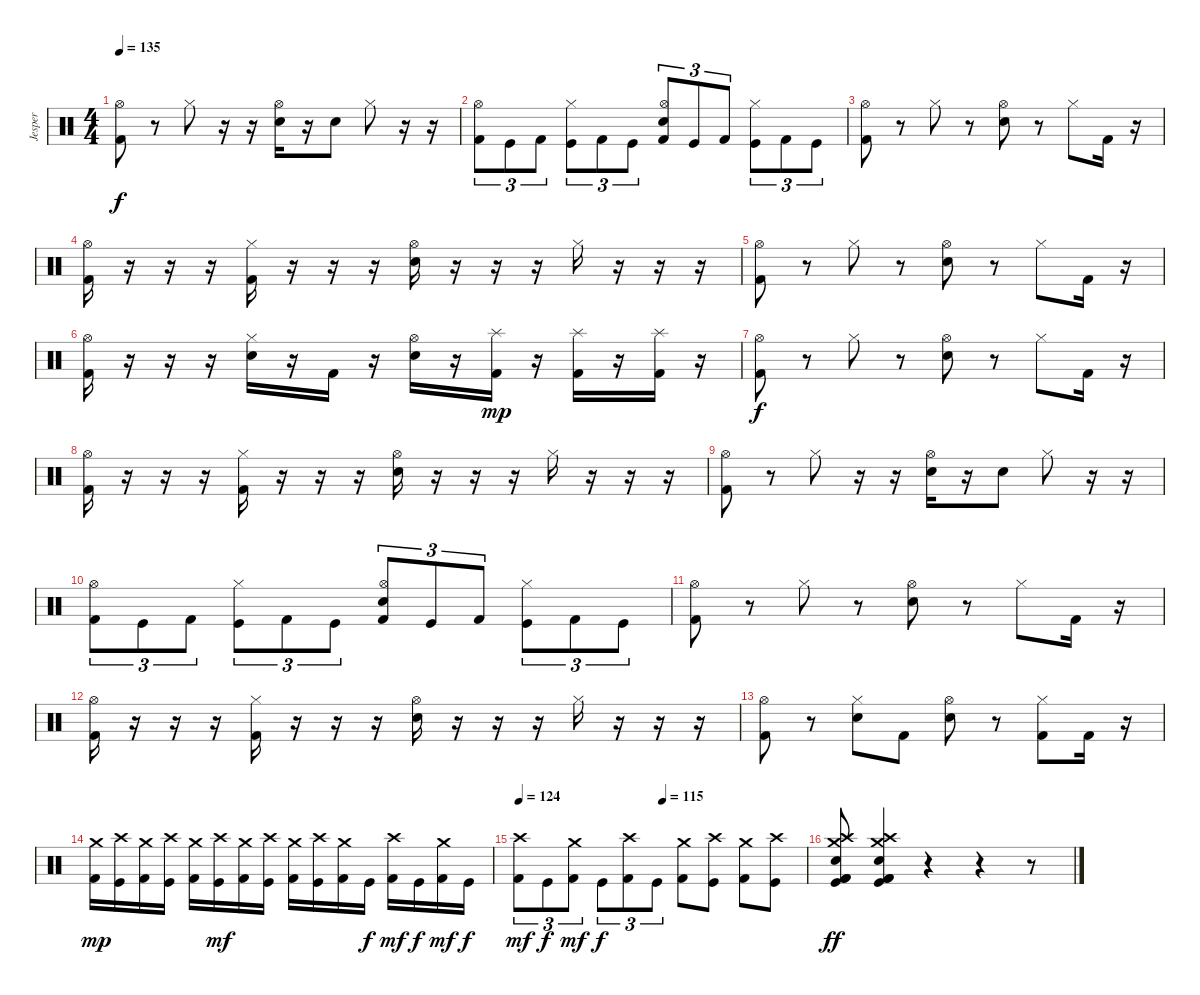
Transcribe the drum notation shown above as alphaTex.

\track ("Jesper" "Jesper") {instrument percussion}
\staff {score}
\articulation defaults
\ts (4 4)
\tempo 135
\clef neutral
\ks c
("Kick (hit) 2" "Hi-Hat (open)").8{dy f} r.8 "Hi-Hat (closed)".8 r.16 r.16 ("Snare (hit) 2" "Hi-Hat (open)").16 r.16 "Snare (hit) 2".8 "Hi-Hat (closed)".8 r.16 r.16 |
("Kick (hit) 2" "Hi-Hat (open)").8{tu (3 2)} "Kick (hit)".8{tu (3 2)} "Kick (hit) 2".8{tu (3 2)} ("Kick (hit)" "Hi-Hat (closed)").8{tu (3 2)} "Kick (hit) 2".8{tu (3 2)} "Kick (hit)".8{tu (3 2)} ("Kick (hit) 2" "Snare (hit) 2" "Hi-Hat (open)").8{tu (3 2)} "Kick (hit)".8{tu (3 2)} "Kick (hit) 2".8{tu (3 2)} ("Kick (hit)" "Hi-Hat (closed)").8{tu (3 2)} "Kick (hit) 2".8{tu (3 2)} "Kick (hit)".8{tu (3 2)} |
("Kick (hit) 2" "Hi-Hat (open)").8 r.8 "Hi-Hat (closed)".8 r.8 ("Snare (hit) 2" "Hi-Hat (open)").8 r.8 "Hi-Hat (closed)".8 "Kick (hit) 2".16 r.16 |
("Kick (hit) 2" "Hi-Hat (open)").16 r.16 r.16 r.16 ("Kick (hit) 2" "Hi-Hat (closed)").16 r.16 r.16 r.16 ("Snare (hit) 2" "Hi-Hat (open)").16 r.16 r.16 r.16 "Hi-Hat (closed)".16 r.16 r.16 r.16 |
("Kick (hit) 2" "Hi-Hat (open)").8 r.8 "Hi-Hat (closed)".8 r.8 ("Snare (hit) 2" "Hi-Hat (open)").8 r.8 "Hi-Hat (closed)".8 "Kick (hit) 2".16 r.16 |
("Kick (hit) 2" "Hi-Hat (open)").16 r.16 r.16 r.16 ("Snare (hit) 2" "Hi-Hat (closed)").16 r.16 "Kick (hit) 2".16 r.16 ("Snare (hit) 2" "Hi-Hat (open)").16 r.16 ("Kick (hit) 2" "Splash (hit)").16{dy mp} r.16 ("Kick (hit) 2" "Splash (hit)").16 r.16 ("Kick (hit) 2" "Splash (hit)").16 r.16 |
("Kick (hit) 2" "Hi-Hat (open)").8{dy f} r.8 "Hi-Hat (closed)".8 r.8 ("Snare (hit) 2" "Hi-Hat (open)").8 r.8 "Hi-Hat (closed)".8 "Kick (hit) 2".16 r.16 |
("Kick (hit) 2" "Hi-Hat (open)").16 r.16 r.16 r.16 ("Kick (hit) 2" "Hi-Hat (closed)").16 r.16 r.16 r.16 ("Snare (hit) 2" "Hi-Hat (open)").16 r.16 r.16 r.16 "Hi-Hat (closed)".16 r.16 r.16 r.16 |
("Kick (hit) 2" "Hi-Hat (open)").8 r.8 "Hi-Hat (closed)".8 r.16 r.16 ("Snare (hit) 2" "Hi-Hat (open)").16 r.16 "Snare (hit) 2".8 "Hi-Hat (closed)".8 r.16 r.16 |
("Kick (hit) 2" "Hi-Hat (open)").8{tu (3 2)} "Kick (hit)".8{tu (3 2)} "Kick (hit) 2".8{tu (3 2)} ("Kick (hit)" "Hi-Hat (closed)").8{tu (3 2)} "Kick (hit) 2".8{tu (3 2)} "Kick (hit)".8{tu (3 2)} ("Kick (hit) 2" "Snare (hit) 2" "Hi-Hat (open)").8{tu (3 2)} "Kick (hit)".8{tu (3 2)} "Kick (hit) 2".8{tu (3 2)} ("Kick (hit)" "Hi-Hat (closed)").8{tu (3 2)} "Kick (hit) 2".8{tu (3 2)} "Kick (hit)".8{tu (3 2)} |
("Kick (hit) 2" "Hi-Hat (open)").8 r.8 "Hi-Hat (closed)".8 r.8 ("Snare (hit) 2" "Hi-Hat (open)").8 r.8 "Hi-Hat (closed)".8 "Kick (hit) 2".16 r.16 |
("Kick (hit) 2" "Hi-Hat (open)").16 r.16 r.16 r.16 ("Kick (hit) 2" "Hi-Hat (closed)").16 r.16 r.16 r.16 ("Snare (hit) 2" "Hi-Hat (open)").16 r.16 r.16 r.16 "Hi-Hat (closed)".16 r.16 r.16 r.16 |
("Kick (hit) 2" "Hi-Hat (open)").8 r.8 ("Snare (hit) 2" "Hi-Hat (closed)").8 "Kick (hit) 2".8 ("Snare (hit) 2" "Hi-Hat (open)").8 r.8 ("Kick (hit) 2" "Hi-Hat (closed)").8 "Kick (hit) 2".16 r.16 |
("Kick (hit) 2" "Crash medium (hit)").16{dy mp} ("Kick (hit)" "Crash high (hit)").16 ("Kick (hit) 2" "Crash medium (hit)").16 ("Kick (hit)" "Crash high (hit)").16 ("Kick (hit) 2" "Crash medium (hit)").16 ("Kick (hit)" "Crash high (hit)").16{dy mf} ("Kick (hit) 2" "Crash medium (hit)").16 ("Kick (hit)" "Crash high (hit)").16 ("Kick (hit) 2" "Crash medium (hit)").16 ("Kick (hit)" "Crash high (hit)").16 ("Kick (hit) 2" "Crash medium (hit)").16 "Kick (hit)".16{dy f} ("Kick (hit) 2" "Crash high (hit)").16{dy mf} "Kick (hit)".16{dy f} ("Kick (hit) 2" "Crash medium (hit)").16{dy mf} "Kick (hit)".16{dy f} |
\tempo 124
\tempo (115 0.5)
("Kick (hit) 2" "Crash high (hit)").8{tu (3 2) dy mf} "Kick (hit)".8{tu (3 2) dy f} ("Kick (hit) 2" "Crash medium (hit)").8{tu (3 2) dy mf} "Kick (hit)".8{tu (3 2) dy f} ("Kick (hit) 2" "Crash high (hit)").8{tu (3 2)} "Kick (hit)".8{tu (3 2)} ("Kick (hit) 2" "Crash medium (hit)").8 ("Kick (hit)" "Crash high (hit)").8 ("Kick (hit) 2" "Crash medium (hit)").8 ("Kick (hit)" "Crash high (hit)").8 |
("Kick (hit) 2" "Kick (hit)" "Kick (hit) 2" "Electric Snare (hit)" "Crash medium (hit)" "Crash high (hit)").8{dy ff} ("Kick (hit) 2" "Kick (hit)" "Kick (hit) 2" "Electric Snare (hit)" "Crash high (hit)" "Crash medium (hit)").4 r.4 r.4 r.8
